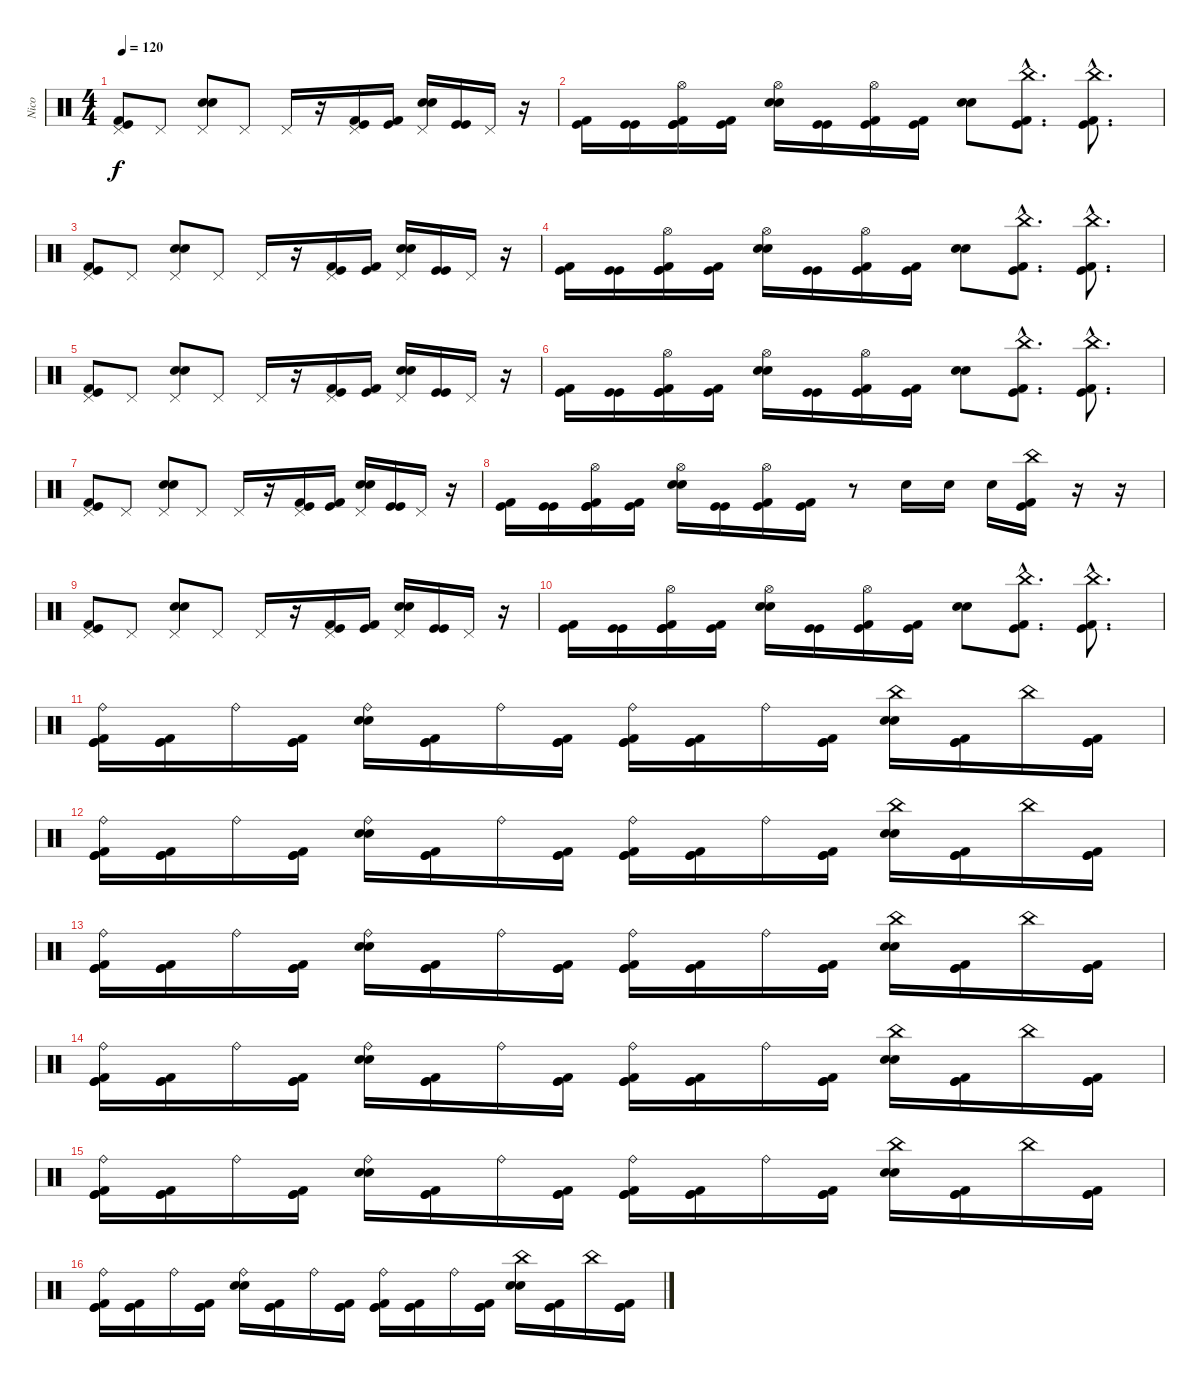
\track ("Nico" "Nico") {instrument percussion}
\staff {score}
\articulation defaults
\ts (4 4)
\tempo 120
\clef neutral
\ks c
("Pedal Hi-Hat (hit)" "Kick (hit)" "Kick (hit) 2").8{dy f} "Pedal Hi-Hat (hit)".8 ("Pedal Hi-Hat (hit)" "Snare (hit) 2" "Snare (hit) 2").8 "Pedal Hi-Hat (hit)".8 "Pedal Hi-Hat (hit)".16 r.16 ("Pedal Hi-Hat (hit)" "Kick (hit) 2" "Kick (hit)").16 ("Kick (hit) 2" "Kick (hit)").16 ("Pedal Hi-Hat (hit)" "Snare (hit) 2" "Snare (hit) 2").16 ("Kick (hit)" "Kick (hit)").16 "Pedal Hi-Hat (hit)".16 r.16 |
("Kick (hit)" "Kick (hit) 2").16 ("Kick (hit)" "Kick (hit)").16 ("Hi-Hat (open)" "Kick (hit)" "Kick (hit) 2" "Kick (hit)").16 ("Kick (hit)" "Kick (hit) 2").16 ("Hi-Hat (open)" "Snare (hit) 2" "Snare (hit) 2").16 ("Kick (hit)" "Kick (hit)").16 ("Hi-Hat (open)" "Kick (hit) 2" "Kick (hit)").16 ("Kick (hit)" "Kick (hit) 2").16 ("Snare (hit) 2" "Snare (hit) 2").8 ("China (hit)"{hac} "Kick (hit) 2"{hac} "Kick (hit)"{hac}).8{d} ("China (hit)"{hac} "Kick (hit) 2"{hac} "Kick (hit)"{hac}).8{d} |
("Pedal Hi-Hat (hit)" "Kick (hit)" "Kick (hit) 2").8 "Pedal Hi-Hat (hit)".8 ("Pedal Hi-Hat (hit)" "Snare (hit) 2" "Snare (hit) 2").8 "Pedal Hi-Hat (hit)".8 "Pedal Hi-Hat (hit)".16 r.16 ("Pedal Hi-Hat (hit)" "Kick (hit) 2" "Kick (hit)").16 ("Kick (hit) 2" "Kick (hit)").16 ("Pedal Hi-Hat (hit)" "Snare (hit) 2" "Snare (hit) 2").16 ("Kick (hit)" "Kick (hit)").16 "Pedal Hi-Hat (hit)".16 r.16 |
("Kick (hit)" "Kick (hit) 2").16 ("Kick (hit)" "Kick (hit)").16 ("Hi-Hat (open)" "Kick (hit)" "Kick (hit) 2" "Kick (hit)").16 ("Kick (hit)" "Kick (hit) 2").16 ("Hi-Hat (open)" "Snare (hit) 2" "Snare (hit) 2").16 ("Kick (hit)" "Kick (hit)").16 ("Hi-Hat (open)" "Kick (hit) 2" "Kick (hit)").16 ("Kick (hit)" "Kick (hit) 2").16 ("Snare (hit) 2" "Snare (hit) 2").8 ("China (hit)"{hac} "Kick (hit) 2"{hac} "Kick (hit)"{hac}).8{d} ("China (hit)"{hac} "Kick (hit) 2"{hac} "Kick (hit)"{hac}).8{d} |
("Pedal Hi-Hat (hit)" "Kick (hit)" "Kick (hit) 2").8 "Pedal Hi-Hat (hit)".8 ("Pedal Hi-Hat (hit)" "Snare (hit) 2" "Snare (hit) 2").8 "Pedal Hi-Hat (hit)".8 "Pedal Hi-Hat (hit)".16 r.16 ("Pedal Hi-Hat (hit)" "Kick (hit) 2" "Kick (hit)").16 ("Kick (hit) 2" "Kick (hit)").16 ("Pedal Hi-Hat (hit)" "Snare (hit) 2" "Snare (hit) 2").16 ("Kick (hit)" "Kick (hit)").16 "Pedal Hi-Hat (hit)".16 r.16 |
("Kick (hit)" "Kick (hit) 2").16 ("Kick (hit)" "Kick (hit)").16 ("Hi-Hat (open)" "Kick (hit)" "Kick (hit) 2" "Kick (hit)").16 ("Kick (hit)" "Kick (hit) 2").16 ("Hi-Hat (open)" "Snare (hit) 2" "Snare (hit) 2").16 ("Kick (hit)" "Kick (hit)").16 ("Hi-Hat (open)" "Kick (hit) 2" "Kick (hit)").16 ("Kick (hit)" "Kick (hit) 2").16 ("Snare (hit) 2" "Snare (hit) 2").8 ("China (hit)"{hac} "Kick (hit) 2"{hac} "Kick (hit)"{hac}).8{d} ("China (hit)"{hac} "Kick (hit) 2"{hac} "Kick (hit)"{hac}).8{d} |
("Pedal Hi-Hat (hit)" "Kick (hit)" "Kick (hit) 2").8 "Pedal Hi-Hat (hit)".8 ("Pedal Hi-Hat (hit)" "Snare (hit) 2" "Snare (hit) 2").8 "Pedal Hi-Hat (hit)".8 "Pedal Hi-Hat (hit)".16 r.16 ("Pedal Hi-Hat (hit)" "Kick (hit) 2" "Kick (hit)").16 ("Kick (hit) 2" "Kick (hit)").16 ("Pedal Hi-Hat (hit)" "Snare (hit) 2" "Snare (hit) 2").16 ("Kick (hit)" "Kick (hit)").16 "Pedal Hi-Hat (hit)".16 r.16 |
("Kick (hit)" "Kick (hit) 2").16 ("Kick (hit)" "Kick (hit)").16 ("Hi-Hat (open)" "Kick (hit)" "Kick (hit) 2" "Kick (hit)").16 ("Kick (hit)" "Kick (hit) 2").16 ("Hi-Hat (open)" "Snare (hit) 2" "Snare (hit) 2").16 ("Kick (hit)" "Kick (hit)").16 ("Hi-Hat (open)" "Kick (hit) 2" "Kick (hit)").16 ("Kick (hit)" "Kick (hit) 2").16 r.8 "Snare (hit) 2".16 "Snare (hit) 2".16 "Snare (hit) 2".16 ("China (hit)" "Kick (hit) 2" "Kick (hit)").16 r.16 r.16 |
("Pedal Hi-Hat (hit)" "Kick (hit)" "Kick (hit) 2").8 "Pedal Hi-Hat (hit)".8 ("Pedal Hi-Hat (hit)" "Snare (hit) 2" "Snare (hit) 2").8 "Pedal Hi-Hat (hit)".8 "Pedal Hi-Hat (hit)".16 r.16 ("Pedal Hi-Hat (hit)" "Kick (hit) 2" "Kick (hit)").16 ("Kick (hit) 2" "Kick (hit)").16 ("Pedal Hi-Hat (hit)" "Snare (hit) 2" "Snare (hit) 2").16 ("Kick (hit)" "Kick (hit)").16 "Pedal Hi-Hat (hit)".16 r.16 |
("Kick (hit)" "Kick (hit) 2").16 ("Kick (hit)" "Kick (hit)").16 ("Hi-Hat (open)" "Kick (hit)" "Kick (hit) 2" "Kick (hit)").16 ("Kick (hit)" "Kick (hit) 2").16 ("Hi-Hat (open)" "Snare (hit) 2" "Snare (hit) 2").16 ("Kick (hit)" "Kick (hit)").16 ("Hi-Hat (open)" "Kick (hit) 2" "Kick (hit)").16 ("Kick (hit)" "Kick (hit) 2").16 ("Snare (hit) 2" "Snare (hit) 2").8 ("China (hit)"{hac} "Kick (hit) 2"{hac} "Kick (hit)"{hac}).8{d} ("China (hit)"{hac} "Kick (hit) 2"{hac} "Kick (hit)"{hac}).8{d} |
("Ride (bell)" "Kick (hit)" "Kick (hit) 2" "Kick (hit)").16 ("Kick (hit)" "Kick (hit)" "Kick (hit) 2").16 "Ride (bell)".16 ("Kick (hit)" "Kick (hit)" "Kick (hit) 2").16 ("Ride (bell)" "Snare (hit) 2" "Snare (hit) 2").16 ("Kick (hit) 2" "Kick (hit)" "Kick (hit)").16 "Ride (bell)".16 ("Kick (hit) 2" "Kick (hit)" "Kick (hit)").16 ("Ride (bell)" "Kick (hit) 2" "Kick (hit)" "Kick (hit)").16 ("Kick (hit) 2" "Kick (hit)" "Kick (hit)").16 "Ride (bell)".16 ("Kick (hit) 2" "Kick (hit)" "Kick (hit)").16 ("China (hit)" "Snare (hit) 2" "Snare (hit) 2").16 ("Kick (hit) 2" "Kick (hit)" "Kick (hit)").16 "China (hit)".16 ("Kick (hit) 2" "Kick (hit)" "Kick (hit)").16 |
("Ride (bell)" "Kick (hit)" "Kick (hit) 2" "Kick (hit)").16 ("Kick (hit)" "Kick (hit)" "Kick (hit) 2").16 "Ride (bell)".16 ("Kick (hit)" "Kick (hit)" "Kick (hit) 2").16 ("Ride (bell)" "Snare (hit) 2" "Snare (hit) 2").16 ("Kick (hit) 2" "Kick (hit)" "Kick (hit)").16 "Ride (bell)".16 ("Kick (hit) 2" "Kick (hit)" "Kick (hit)").16 ("Ride (bell)" "Kick (hit) 2" "Kick (hit)" "Kick (hit)").16 ("Kick (hit) 2" "Kick (hit)" "Kick (hit)").16 "Ride (bell)".16 ("Kick (hit) 2" "Kick (hit)" "Kick (hit)").16 ("China (hit)" "Snare (hit) 2" "Snare (hit) 2").16 ("Kick (hit) 2" "Kick (hit)" "Kick (hit)").16 "China (hit)".16 ("Kick (hit) 2" "Kick (hit)" "Kick (hit)").16 |
("Ride (bell)" "Kick (hit)" "Kick (hit) 2" "Kick (hit)").16 ("Kick (hit)" "Kick (hit)" "Kick (hit) 2").16 "Ride (bell)".16 ("Kick (hit)" "Kick (hit)" "Kick (hit) 2").16 ("Ride (bell)" "Snare (hit) 2" "Snare (hit) 2").16 ("Kick (hit) 2" "Kick (hit)" "Kick (hit)").16 "Ride (bell)".16 ("Kick (hit) 2" "Kick (hit)" "Kick (hit)").16 ("Ride (bell)" "Kick (hit) 2" "Kick (hit)" "Kick (hit)").16 ("Kick (hit) 2" "Kick (hit)" "Kick (hit)").16 "Ride (bell)".16 ("Kick (hit) 2" "Kick (hit)" "Kick (hit)").16 ("China (hit)" "Snare (hit) 2" "Snare (hit) 2").16 ("Kick (hit) 2" "Kick (hit)" "Kick (hit)").16 "China (hit)".16 ("Kick (hit) 2" "Kick (hit)" "Kick (hit)").16 |
("Ride (bell)" "Kick (hit)" "Kick (hit) 2" "Kick (hit)").16 ("Kick (hit)" "Kick (hit)" "Kick (hit) 2").16 "Ride (bell)".16 ("Kick (hit)" "Kick (hit)" "Kick (hit) 2").16 ("Ride (bell)" "Snare (hit) 2" "Snare (hit) 2").16 ("Kick (hit) 2" "Kick (hit)" "Kick (hit)").16 "Ride (bell)".16 ("Kick (hit) 2" "Kick (hit)" "Kick (hit)").16 ("Ride (bell)" "Kick (hit) 2" "Kick (hit)" "Kick (hit)").16 ("Kick (hit) 2" "Kick (hit)" "Kick (hit)").16 "Ride (bell)".16 ("Kick (hit) 2" "Kick (hit)" "Kick (hit)").16 ("China (hit)" "Snare (hit) 2" "Snare (hit) 2").16 ("Kick (hit) 2" "Kick (hit)" "Kick (hit)").16 "China (hit)".16 ("Kick (hit) 2" "Kick (hit)" "Kick (hit)").16 |
("Ride (bell)" "Kick (hit)" "Kick (hit) 2" "Kick (hit)").16 ("Kick (hit)" "Kick (hit)" "Kick (hit) 2").16 "Ride (bell)".16 ("Kick (hit)" "Kick (hit)" "Kick (hit) 2").16 ("Ride (bell)" "Snare (hit) 2" "Snare (hit) 2").16 ("Kick (hit) 2" "Kick (hit)" "Kick (hit)").16 "Ride (bell)".16 ("Kick (hit) 2" "Kick (hit)" "Kick (hit)").16 ("Ride (bell)" "Kick (hit) 2" "Kick (hit)" "Kick (hit)").16 ("Kick (hit) 2" "Kick (hit)" "Kick (hit)").16 "Ride (bell)".16 ("Kick (hit) 2" "Kick (hit)" "Kick (hit)").16 ("China (hit)" "Snare (hit) 2" "Snare (hit) 2").16 ("Kick (hit) 2" "Kick (hit)" "Kick (hit)").16 "China (hit)".16 ("Kick (hit) 2" "Kick (hit)" "Kick (hit)").16 |
("Ride (bell)" "Kick (hit)" "Kick (hit) 2" "Kick (hit)").16 ("Kick (hit)" "Kick (hit)" "Kick (hit) 2").16 "Ride (bell)".16 ("Kick (hit)" "Kick (hit)" "Kick (hit) 2").16 ("Ride (bell)" "Snare (hit) 2" "Snare (hit) 2").16 ("Kick (hit) 2" "Kick (hit)" "Kick (hit)").16 "Ride (bell)".16 ("Kick (hit) 2" "Kick (hit)" "Kick (hit)").16 ("Ride (bell)" "Kick (hit) 2" "Kick (hit)" "Kick (hit)").16 ("Kick (hit) 2" "Kick (hit)" "Kick (hit)").16 "Ride (bell)".16 ("Kick (hit) 2" "Kick (hit)" "Kick (hit)").16 ("China (hit)" "Snare (hit) 2" "Snare (hit) 2").16 ("Kick (hit) 2" "Kick (hit)" "Kick (hit)").16 "China (hit)".16 ("Kick (hit) 2" "Kick (hit)" "Kick (hit)").16
